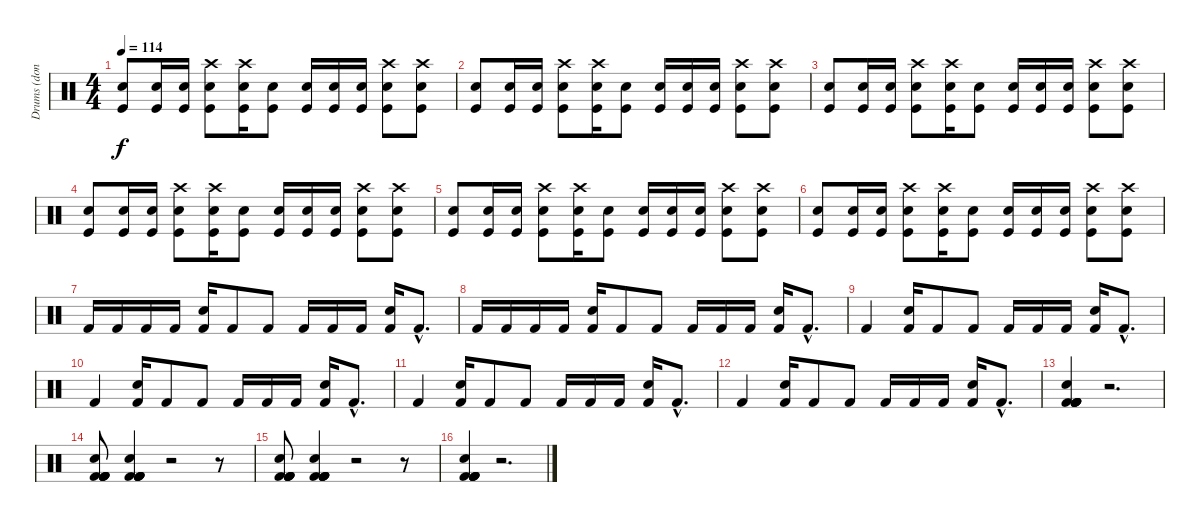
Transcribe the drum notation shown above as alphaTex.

\track ("Drums (done badly)" "Drums (don") {instrument percussion}
\staff {score}
\articulation defaults
\ts (4 4)
\tempo 114
\clef neutral
\ks c
("Snare (hit) 2" "Kick (hit)").8{dy f} ("Snare (hit) 2" "Kick (hit)").16 ("Snare (hit) 2" "Kick (hit)").16 ("Crash high (hit)" "Snare (hit) 2" "Kick (hit)").8 ("Crash high (hit)" "Snare (hit) 2" "Kick (hit)").16 ("Snare (hit) 2" "Kick (hit)").8 ("Snare (hit) 2" "Kick (hit)").16 ("Snare (hit) 2" "Kick (hit)").16 ("Snare (hit) 2" "Kick (hit)").16 ("Crash high (hit)" "Snare (hit) 2" "Kick (hit)").8 ("Crash high (hit)" "Snare (hit) 2" "Kick (hit)").8 |
("Snare (hit) 2" "Kick (hit)").8 ("Snare (hit) 2" "Kick (hit)").16 ("Snare (hit) 2" "Kick (hit)").16 ("Crash high (hit)" "Snare (hit) 2" "Kick (hit)").8 ("Crash high (hit)" "Snare (hit) 2" "Kick (hit)").16 ("Snare (hit) 2" "Kick (hit)").8 ("Snare (hit) 2" "Kick (hit)").16 ("Snare (hit) 2" "Kick (hit)").16 ("Snare (hit) 2" "Kick (hit)").16 ("Crash high (hit)" "Snare (hit) 2" "Kick (hit)").8 ("Crash high (hit)" "Snare (hit) 2" "Kick (hit)").8 |
("Snare (hit) 2" "Kick (hit)").8 ("Snare (hit) 2" "Kick (hit)").16 ("Snare (hit) 2" "Kick (hit)").16 ("Crash high (hit)" "Snare (hit) 2" "Kick (hit)").8 ("Crash high (hit)" "Snare (hit) 2" "Kick (hit)").16 ("Snare (hit) 2" "Kick (hit)").8 ("Snare (hit) 2" "Kick (hit)").16 ("Snare (hit) 2" "Kick (hit)").16 ("Snare (hit) 2" "Kick (hit)").16 ("Crash high (hit)" "Snare (hit) 2" "Kick (hit)").8 ("Crash high (hit)" "Snare (hit) 2" "Kick (hit)").8 |
("Snare (hit) 2" "Kick (hit)").8 ("Snare (hit) 2" "Kick (hit)").16 ("Snare (hit) 2" "Kick (hit)").16 ("Crash high (hit)" "Snare (hit) 2" "Kick (hit)").8 ("Crash high (hit)" "Snare (hit) 2" "Kick (hit)").16 ("Snare (hit) 2" "Kick (hit)").8 ("Snare (hit) 2" "Kick (hit)").16 ("Snare (hit) 2" "Kick (hit)").16 ("Snare (hit) 2" "Kick (hit)").16 ("Crash high (hit)" "Snare (hit) 2" "Kick (hit)").8 ("Crash high (hit)" "Snare (hit) 2" "Kick (hit)").8 |
("Snare (hit) 2" "Kick (hit)").8 ("Snare (hit) 2" "Kick (hit)").16 ("Snare (hit) 2" "Kick (hit)").16 ("Crash high (hit)" "Snare (hit) 2" "Kick (hit)").8 ("Crash high (hit)" "Snare (hit) 2" "Kick (hit)").16 ("Snare (hit) 2" "Kick (hit)").8 ("Snare (hit) 2" "Kick (hit)").16 ("Snare (hit) 2" "Kick (hit)").16 ("Snare (hit) 2" "Kick (hit)").16 ("Crash high (hit)" "Snare (hit) 2" "Kick (hit)").8 ("Crash high (hit)" "Snare (hit) 2" "Kick (hit)").8 |
("Snare (hit) 2" "Kick (hit)").8 ("Snare (hit) 2" "Kick (hit)").16 ("Snare (hit) 2" "Kick (hit)").16 ("Crash high (hit)" "Snare (hit) 2" "Kick (hit)").8 ("Crash high (hit)" "Snare (hit) 2" "Kick (hit)").16 ("Snare (hit) 2" "Kick (hit)").8 ("Snare (hit) 2" "Kick (hit)").16 ("Snare (hit) 2" "Kick (hit)").16 ("Snare (hit) 2" "Kick (hit)").16 ("Crash high (hit)" "Snare (hit) 2" "Kick (hit)").8 ("Crash high (hit)" "Snare (hit) 2" "Kick (hit)").8 |
"Kick (hit) 2".16 "Kick (hit) 2".16 "Kick (hit) 2".16 "Kick (hit) 2".16 ("Snare (hit) 2" "Kick (hit) 2").16 "Kick (hit) 2".8 "Kick (hit) 2".8 "Kick (hit) 2".16 "Kick (hit) 2".16 "Kick (hit) 2".16 ("Snare (hit) 2" "Kick (hit) 2").16 "Kick (hit) 2"{hac}.8{d} |
"Kick (hit) 2".16 "Kick (hit) 2".16 "Kick (hit) 2".16 "Kick (hit) 2".16 ("Snare (hit) 2" "Kick (hit) 2").16 "Kick (hit) 2".8 "Kick (hit) 2".8 "Kick (hit) 2".16 "Kick (hit) 2".16 "Kick (hit) 2".16 ("Snare (hit) 2" "Kick (hit) 2").16 "Kick (hit) 2"{hac}.8{d} |
"Kick (hit) 2".4 ("Snare (hit) 2" "Kick (hit) 2").16 "Kick (hit) 2".8 "Kick (hit) 2".8 "Kick (hit) 2".16 "Kick (hit) 2".16 "Kick (hit) 2".16 ("Snare (hit) 2" "Kick (hit) 2").16 "Kick (hit) 2"{hac}.8{d} |
"Kick (hit) 2".4 ("Snare (hit) 2" "Kick (hit) 2").16 "Kick (hit) 2".8 "Kick (hit) 2".8 "Kick (hit) 2".16 "Kick (hit) 2".16 "Kick (hit) 2".16 ("Snare (hit) 2" "Kick (hit) 2").16 "Kick (hit) 2"{hac}.8{d} |
"Kick (hit) 2".4 ("Snare (hit) 2" "Kick (hit) 2").16 "Kick (hit) 2".8 "Kick (hit) 2".8 "Kick (hit) 2".16 "Kick (hit) 2".16 "Kick (hit) 2".16 ("Snare (hit) 2" "Kick (hit) 2").16 "Kick (hit) 2"{hac}.8{d} |
"Kick (hit) 2".4 ("Snare (hit) 2" "Kick (hit) 2").16 "Kick (hit) 2".8 "Kick (hit) 2".8 "Kick (hit) 2".16 "Kick (hit) 2".16 "Kick (hit) 2".16 ("Snare (hit) 2" "Kick (hit) 2").16 "Kick (hit) 2"{hac}.8{d} |
("Kick (hit) 2" "Kick (hit) 2" "Kick (hit) 2" "Snare (hit) 2" "Kick (hit) 2" "Kick (hit) 2").4 r.2{d} |
("Kick (hit) 2" "Kick (hit) 2" "Kick (hit) 2" "Snare (hit) 2" "Kick (hit) 2" "Kick (hit) 2").8 ("Kick (hit) 2" "Kick (hit) 2" "Kick (hit) 2" "Snare (hit) 2" "Kick (hit) 2" "Kick (hit) 2").4 r.2 r.8 |
("Kick (hit) 2" "Kick (hit) 2" "Kick (hit) 2" "Snare (hit) 2" "Kick (hit) 2" "Kick (hit) 2").8 ("Kick (hit) 2" "Kick (hit) 2" "Kick (hit) 2" "Snare (hit) 2" "Kick (hit) 2" "Kick (hit) 2").4 r.2 r.8 |
("Kick (hit) 2" "Kick (hit) 2" "Kick (hit) 2" "Snare (hit) 2" "Kick (hit) 2" "Kick (hit) 2").4 r.2{d}
